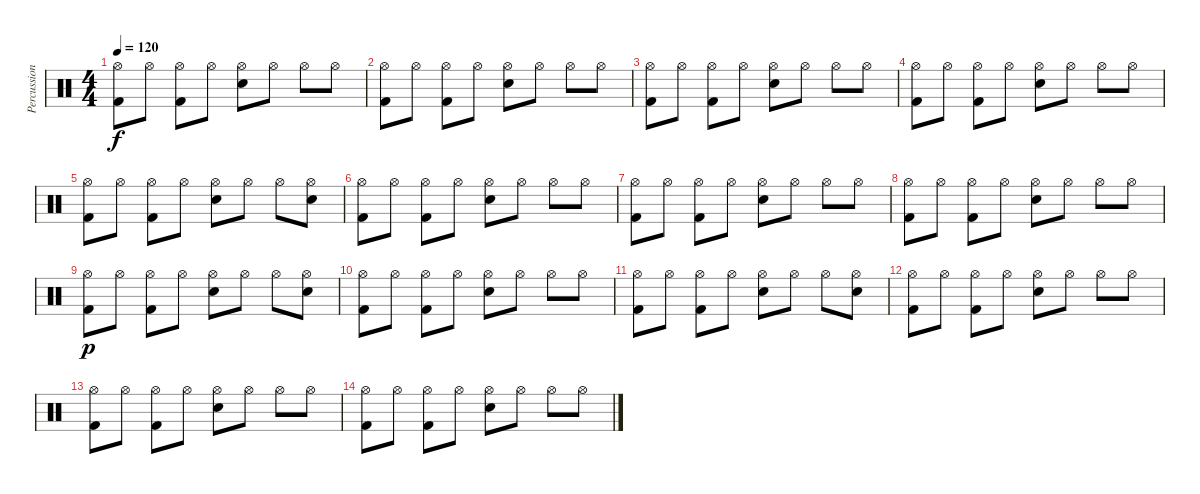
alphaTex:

\track ("Percussions" "Percussion") {instrument percussion}
\staff {score}
\articulation defaults
\ts (4 4)
\tempo 120
\clef neutral
\ks c
("Hi-Hat (open)" "Kick (hit) 2").8{dy f} "Hi-Hat (open)".8 ("Hi-Hat (open)" "Kick (hit) 2").8 "Hi-Hat (open)".8 ("Hi-Hat (open)" "Electric Snare (hit)").8 "Hi-Hat (open)".8 "Hi-Hat (open)".8 "Hi-Hat (open)".8 |
("Hi-Hat (open)" "Kick (hit) 2").8 "Hi-Hat (open)".8 ("Hi-Hat (open)" "Kick (hit) 2").8 "Hi-Hat (open)".8 ("Hi-Hat (open)" "Electric Snare (hit)").8 "Hi-Hat (open)".8 "Hi-Hat (open)".8 "Hi-Hat (open)".8 |
("Hi-Hat (open)" "Kick (hit) 2").8 "Hi-Hat (open)".8 ("Hi-Hat (open)" "Kick (hit) 2").8 "Hi-Hat (open)".8 ("Hi-Hat (open)" "Electric Snare (hit)").8 "Hi-Hat (open)".8 "Hi-Hat (open)".8 "Hi-Hat (open)".8 |
("Hi-Hat (open)" "Kick (hit) 2").8 "Hi-Hat (open)".8 ("Hi-Hat (open)" "Kick (hit) 2").8 "Hi-Hat (open)".8 ("Hi-Hat (open)" "Electric Snare (hit)").8 "Hi-Hat (open)".8 "Hi-Hat (open)".8 "Hi-Hat (open)".8 |
("Hi-Hat (open)" "Kick (hit) 2").8 "Hi-Hat (open)".8 ("Hi-Hat (open)" "Kick (hit) 2").8 "Hi-Hat (open)".8 ("Hi-Hat (open)" "Electric Snare (hit)").8 "Hi-Hat (open)".8 "Hi-Hat (open)".8 ("Hi-Hat (open)" "Electric Snare (hit)").8 |
("Hi-Hat (open)" "Kick (hit) 2").8 "Hi-Hat (open)".8 ("Hi-Hat (open)" "Kick (hit) 2").8 "Hi-Hat (open)".8 ("Hi-Hat (open)" "Electric Snare (hit)").8 "Hi-Hat (open)".8 "Hi-Hat (open)".8 "Hi-Hat (open)".8 |
("Hi-Hat (open)" "Kick (hit) 2").8 "Hi-Hat (open)".8 ("Hi-Hat (open)" "Kick (hit) 2").8 "Hi-Hat (open)".8 ("Hi-Hat (open)" "Electric Snare (hit)").8 "Hi-Hat (open)".8 "Hi-Hat (open)".8 "Hi-Hat (open)".8 |
("Hi-Hat (open)" "Kick (hit) 2").8 "Hi-Hat (open)".8 ("Hi-Hat (open)" "Kick (hit) 2").8 "Hi-Hat (open)".8 ("Hi-Hat (open)" "Electric Snare (hit)").8 "Hi-Hat (open)".8 "Hi-Hat (open)".8 "Hi-Hat (open)".8 |
("Hi-Hat (open)" "Kick (hit) 2").8{dy p} "Hi-Hat (open)".8 ("Hi-Hat (open)" "Kick (hit) 2").8 "Hi-Hat (open)".8 ("Hi-Hat (open)" "Electric Snare (hit)").8 "Hi-Hat (open)".8 "Hi-Hat (open)".8 ("Hi-Hat (open)" "Electric Snare (hit)").8 |
("Hi-Hat (open)" "Kick (hit) 2").8 "Hi-Hat (open)".8 ("Hi-Hat (open)" "Kick (hit) 2").8 "Hi-Hat (open)".8 ("Hi-Hat (open)" "Electric Snare (hit)").8 "Hi-Hat (open)".8 "Hi-Hat (open)".8 "Hi-Hat (open)".8 |
("Hi-Hat (open)" "Kick (hit) 2").8 "Hi-Hat (open)".8 ("Hi-Hat (open)" "Kick (hit) 2").8 "Hi-Hat (open)".8 ("Hi-Hat (open)" "Electric Snare (hit)").8 "Hi-Hat (open)".8 "Hi-Hat (open)".8 ("Hi-Hat (open)" "Electric Snare (hit)").8 |
("Hi-Hat (open)" "Kick (hit) 2").8 "Hi-Hat (open)".8 ("Hi-Hat (open)" "Kick (hit) 2").8 "Hi-Hat (open)".8 ("Hi-Hat (open)" "Electric Snare (hit)").8 "Hi-Hat (open)".8 "Hi-Hat (open)".8 "Hi-Hat (open)".8 |
("Hi-Hat (open)" "Kick (hit) 2").8{volume 0} "Hi-Hat (open)".8 ("Hi-Hat (open)" "Kick (hit) 2").8 "Hi-Hat (open)".8 ("Hi-Hat (open)" "Electric Snare (hit)").8 "Hi-Hat (open)".8 "Hi-Hat (open)".8 "Hi-Hat (open)".8 |
("Hi-Hat (open)" "Kick (hit) 2").8 "Hi-Hat (open)".8 ("Hi-Hat (open)" "Kick (hit) 2").8 "Hi-Hat (open)".8 ("Hi-Hat (open)" "Electric Snare (hit)").8 "Hi-Hat (open)".8 "Hi-Hat (open)".8 "Hi-Hat (open)".8
